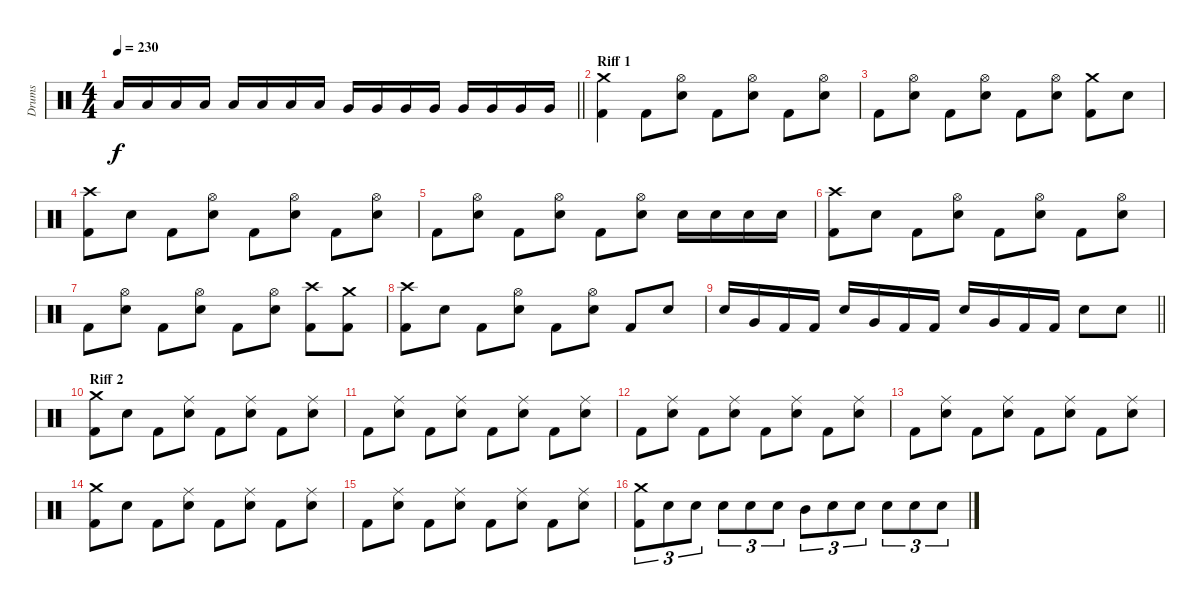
\track ("Drums" "Drums") {instrument percussion}
\staff {score}
\articulation defaults
\ts (4 4)
\tempo 230
\clef neutral
\barLineRight lightlight
\ks c "Low Tom (hit)".16{dy f} "Low Tom (hit)".16 "Low Tom (hit)".16 "Low Tom (hit)".16 "Low Tom (hit)".16 "Low Tom (hit)".16 "Low Tom (hit)".16 "Low Tom (hit)".16 "Very Low Tom (hit)".16 "Very Low Tom (hit)".16 "Very Low Tom (hit)".16 "Very Low Tom (hit)".16 "Very Low Tom (hit)".16 "Very Low Tom (hit)".16 "Very Low Tom (hit)".16 "Very Low Tom (hit)".16
|
\section ("" "Riff 1")
("Crash medium (hit)" "Kick (hit) 2").4 "Kick (hit) 2".8 ("Hi-Hat (open)" "Electric Snare (hit)").8 "Kick (hit) 2".8 ("Hi-Hat (open)" "Electric Snare (hit)").8 "Kick (hit) 2".8 ("Hi-Hat (open)" "Electric Snare (hit)").8 |
"Kick (hit) 2".8 ("Hi-Hat (open)" "Electric Snare (hit)").8 "Kick (hit) 2".8 ("Hi-Hat (open)" "Electric Snare (hit)").8 "Kick (hit) 2".8 ("Hi-Hat (open)" "Electric Snare (hit)").8 ("Crash medium (hit)" "Kick (hit) 2").8 "Electric Snare (hit)".8 |
("Kick (hit) 2" "Crash high (hit)").8 "Electric Snare (hit)".8 "Kick (hit) 2".8 ("Electric Snare (hit)" "Hi-Hat (open)").8 "Kick (hit) 2".8 ("Electric Snare (hit)" "Hi-Hat (open)").8 "Kick (hit) 2".8 ("Electric Snare (hit)" "Hi-Hat (open)").8 |
"Kick (hit) 2".8 ("Hi-Hat (open)" "Electric Snare (hit)").8 "Kick (hit) 2".8 ("Hi-Hat (open)" "Electric Snare (hit)").8 "Kick (hit) 2".8 ("Hi-Hat (open)" "Electric Snare (hit)").8 "Electric Snare (hit)".16 "Electric Snare (hit)".16 "Electric Snare (hit)".16 "Electric Snare (hit)".16 |
("Crash high (hit)" "Kick (hit) 2").8 "Electric Snare (hit)".8 "Kick (hit) 2".8 ("Hi-Hat (open)" "Electric Snare (hit)").8 "Kick (hit) 2".8 ("Hi-Hat (open)" "Electric Snare (hit)").8 "Kick (hit) 2".8 ("Hi-Hat (open)" "Electric Snare (hit)").8 |
"Kick (hit) 2".8 ("Hi-Hat (open)" "Electric Snare (hit)").8 "Kick (hit) 2".8 ("Hi-Hat (open)" "Electric Snare (hit)").8 "Kick (hit) 2".8 ("Hi-Hat (open)" "Electric Snare (hit)").8 ("Crash high (hit)" "Kick (hit) 2").8 ("Crash medium (hit)" "Kick (hit) 2").8 |
("Kick (hit) 2" "Crash high (hit)").8 "Electric Snare (hit)".8 "Kick (hit) 2".8 ("Electric Snare (hit)" "Hi-Hat (open)").8 "Kick (hit) 2".8 ("Electric Snare (hit)" "Hi-Hat (open)").8 "Kick (hit) 2".8 "Electric Snare (hit)".8 |
\barLineRight lightlight "Electric Snare (hit)".16 "Very Low Tom (hit)".16 "Kick (hit) 2".16 "Kick (hit) 2".16 "Electric Snare (hit)".16 "Very Low Tom (hit)".16 "Kick (hit) 2".16 "Kick (hit) 2".16 "Electric Snare (hit)".16 "Very Low Tom (hit)".16 "Kick (hit) 2".16 "Kick (hit) 2".16 "Electric Snare (hit)".8 "Electric Snare (hit)".8
|
\section ("" "Riff 2")
("Crash medium (hit)" "Kick (hit) 2").8 "Electric Snare (hit)".8 "Kick (hit) 2".8 ("Electric Snare (hit)" "Ride (middle)").8 "Kick (hit) 2".8 ("Electric Snare (hit)" "Ride (middle)").8 "Kick (hit) 2".8 ("Electric Snare (hit)" "Ride (middle)").8 |
"Kick (hit) 2".8 ("Electric Snare (hit)" "Ride (middle)").8 "Kick (hit) 2".8 ("Electric Snare (hit)" "Ride (middle)").8 "Kick (hit) 2".8 ("Electric Snare (hit)" "Ride (middle)").8 "Kick (hit) 2".8 ("Electric Snare (hit)" "Ride (middle)").8 |
"Kick (hit) 2".8 ("Electric Snare (hit)" "Ride (middle)").8 "Kick (hit) 2".8 ("Electric Snare (hit)" "Ride (middle)").8 "Kick (hit) 2".8 ("Electric Snare (hit)" "Ride (middle)").8 "Kick (hit) 2".8 ("Electric Snare (hit)" "Ride (middle)").8 |
"Kick (hit) 2".8 ("Electric Snare (hit)" "Ride (middle)").8 "Kick (hit) 2".8 ("Electric Snare (hit)" "Ride (middle)").8 "Kick (hit) 2".8 ("Electric Snare (hit)" "Ride (middle)").8 "Kick (hit) 2".8 ("Electric Snare (hit)" "Ride (middle)").8 |
("Crash medium (hit)" "Kick (hit) 2").8 "Electric Snare (hit)".8 "Kick (hit) 2".8 ("Electric Snare (hit)" "Ride (middle)").8 "Kick (hit) 2".8 ("Electric Snare (hit)" "Ride (middle)").8 "Kick (hit) 2".8 ("Electric Snare (hit)" "Ride (middle)").8 |
"Kick (hit) 2".8 ("Electric Snare (hit)" "Ride (middle)").8 "Kick (hit) 2".8 ("Electric Snare (hit)" "Ride (middle)").8 "Kick (hit) 2".8 ("Electric Snare (hit)" "Ride (middle)").8 "Kick (hit) 2".8 ("Electric Snare (hit)" "Ride (middle)").8 |
("Crash medium (hit)" "Kick (hit) 2").8{tu (3 2)} "Electric Snare (hit)".8{tu (3 2)} "Electric Snare (hit)".8{tu (3 2)} "Electric Snare (hit)".8{tu (3 2)} "Electric Snare (hit)".8{tu (3 2)} "Electric Snare (hit)".8{tu (3 2)} "Mid Tom (hit)".8{tu (3 2)} "Electric Snare (hit)".8{tu (3 2)} "Electric Snare (hit)".8{tu (3 2)} "Electric Snare (hit)".8{tu (3 2)} "Electric Snare (hit)".8{tu (3 2)} "Electric Snare (hit)".8{tu (3 2)}
